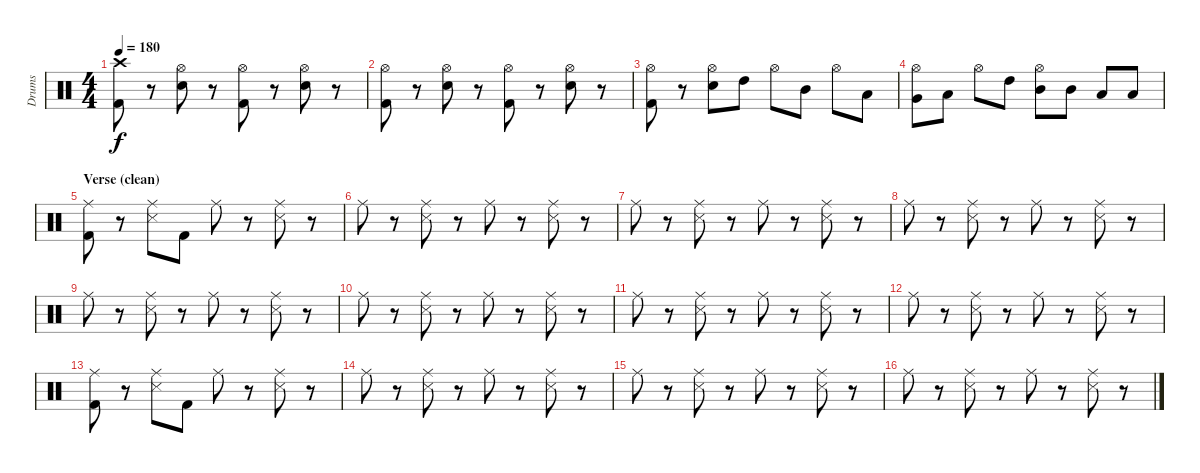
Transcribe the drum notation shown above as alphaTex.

\track ("Drums" "Drums") {instrument percussion}
\staff {score}
\articulation defaults
\ts (4 4)
\tempo 180
\clef neutral
\ks c
("Crash high (hit)" "Kick (hit) 2").8{dy f} r.8 ("Hi-Hat (open)" "Snare (hit) 2").8 r.8 ("Hi-Hat (open)" "Kick (hit) 2").8 r.8 ("Hi-Hat (open)" "Snare (hit) 2").8 r.8 |
("Hi-Hat (open)" "Kick (hit) 2").8 r.8 ("Hi-Hat (open)" "Snare (hit) 2").8 r.8 ("Hi-Hat (open)" "Kick (hit) 2").8 r.8 ("Hi-Hat (open)" "Snare (hit) 2").8 r.8 |
("Hi-Hat (open)" "Kick (hit) 2").8 r.8 ("Hi-Hat (open)" "Snare (hit) 2").8 "High Tom (hit)".8 "Hi-Hat (open)".8 "Mid Tom (hit)".8 "Hi-Hat (open)".8 "Low Tom (hit)".8 |
("Hi-Hat (open)" "Very Low Tom (hit)").8 "Low Floor Tom (hit)".8 "Hi-Hat (open)".8 "High Tom (hit)".8 ("Hi-Hat (open)" "Mid Tom (hit)").8 "Mid Tom (hit)".8 "Low Tom (hit)".8 "Low Tom (hit)".8 |
\section ("" "Verse (clean)")
("Ride (middle)" "Kick (hit) 2").8 r.8 ("Ride (middle)" "Snare (side stick) 3").8 "Kick (hit) 2".8 "Ride (middle)".8 r.8 ("Ride (middle)" "Snare (side stick) 3").8 r.8 |
"Ride (middle)".8 r.8 ("Ride (middle)" "Snare (side stick) 3").8 r.8 "Ride (middle)".8 r.8 ("Ride (middle)" "Snare (side stick) 3").8 r.8 |
"Ride (middle)".8 r.8 ("Ride (middle)" "Snare (side stick) 3").8 r.8 "Ride (middle)".8 r.8 ("Ride (middle)" "Snare (side stick) 3").8 r.8 |
"Ride (middle)".8 r.8 ("Ride (middle)" "Snare (side stick) 3").8 r.8 "Ride (middle)".8 r.8 ("Ride (middle)" "Snare (side stick) 3").8 r.8 |
"Ride (middle)".8 r.8 ("Ride (middle)" "Snare (side stick) 3").8 r.8 "Ride (middle)".8 r.8 ("Ride (middle)" "Snare (side stick) 3").8 r.8 |
"Ride (middle)".8 r.8 ("Ride (middle)" "Snare (side stick) 3").8 r.8 "Ride (middle)".8 r.8 ("Ride (middle)" "Snare (side stick) 3").8 r.8 |
"Ride (middle)".8 r.8 ("Ride (middle)" "Snare (side stick) 3").8 r.8 "Ride (middle)".8 r.8 ("Ride (middle)" "Snare (side stick) 3").8 r.8 |
"Ride (middle)".8 r.8 ("Ride (middle)" "Snare (side stick) 3").8 r.8 "Ride (middle)".8 r.8 ("Ride (middle)" "Snare (side stick) 3").8 r.8 |
("Ride (middle)" "Kick (hit) 2").8 r.8 ("Ride (middle)" "Snare (side stick) 3").8 "Kick (hit) 2".8 "Ride (middle)".8 r.8 ("Ride (middle)" "Snare (side stick) 3").8 r.8 |
"Ride (middle)".8 r.8 ("Ride (middle)" "Snare (side stick) 3").8 r.8 "Ride (middle)".8 r.8 ("Ride (middle)" "Snare (side stick) 3").8 r.8 |
"Ride (middle)".8 r.8 ("Ride (middle)" "Snare (side stick) 3").8 r.8 "Ride (middle)".8 r.8 ("Ride (middle)" "Snare (side stick) 3").8 r.8 |
"Ride (middle)".8 r.8 ("Ride (middle)" "Snare (side stick) 3").8 r.8 "Ride (middle)".8 r.8 ("Ride (middle)" "Snare (side stick) 3").8 r.8
